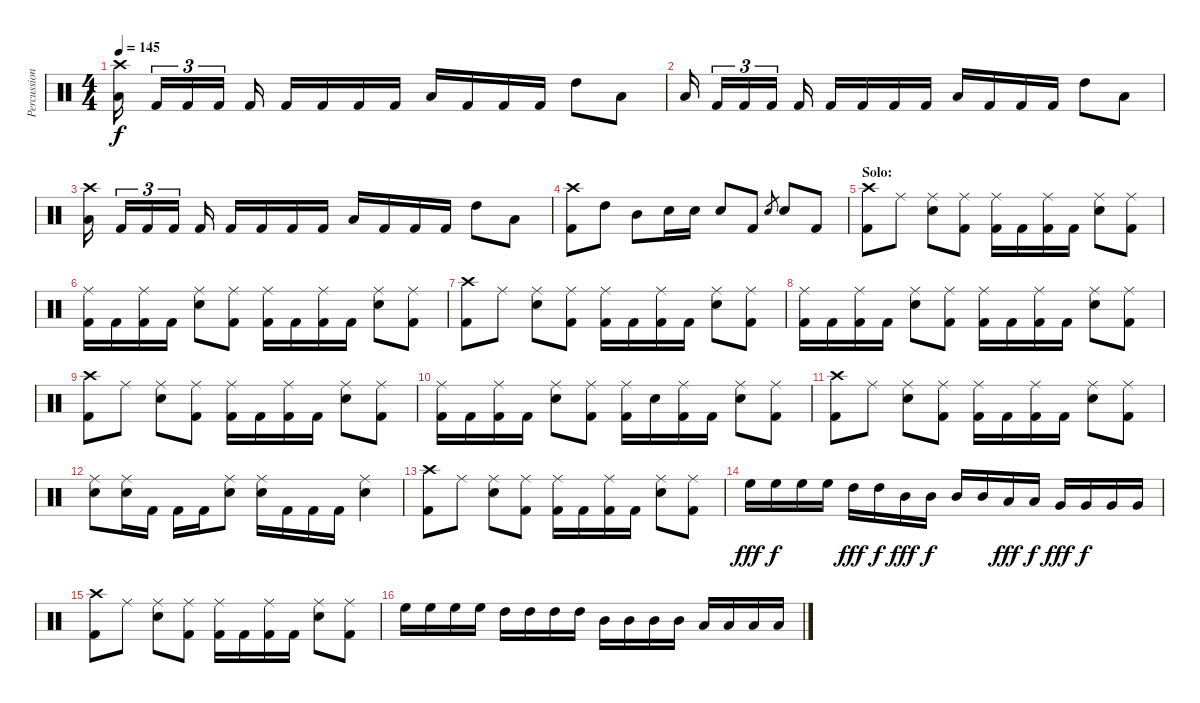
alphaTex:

\track ("Percussion" "Percussion") {instrument percussion}
\staff {score}
\articulation defaults
\ts (4 4)
\tempo 145
\clef neutral
\ks c
("Crash high (hit)" "Low Tom (hit)").16{dy f} "Kick (hit) 2".16{tu (3 2)} "Kick (hit) 2".16{tu (3 2)} "Kick (hit) 2".16{tu (3 2)} "Kick (hit) 2".16 "Kick (hit) 2".16 "Kick (hit) 2".16 "Kick (hit) 2".16 "Kick (hit) 2".16 "Low Tom (hit)".16 "Kick (hit) 2".16 "Kick (hit) 2".16 "Kick (hit) 2".16 "High Tom (hit)".8 "Low Tom (hit)".8 |
"Low Tom (hit)".16 "Kick (hit) 2".16{tu (3 2)} "Kick (hit) 2".16{tu (3 2)} "Kick (hit) 2".16{tu (3 2)} "Kick (hit) 2".16 "Kick (hit) 2".16 "Kick (hit) 2".16 "Kick (hit) 2".16 "Kick (hit) 2".16 "Low Tom (hit)".16 "Kick (hit) 2".16 "Kick (hit) 2".16 "Kick (hit) 2".16 "High Tom (hit)".8 "Low Tom (hit)".8 |
("Crash high (hit)" "Low Tom (hit)").16 "Kick (hit) 2".16{tu (3 2)} "Kick (hit) 2".16{tu (3 2)} "Kick (hit) 2".16{tu (3 2)} "Kick (hit) 2".16 "Kick (hit) 2".16 "Kick (hit) 2".16 "Kick (hit) 2".16 "Kick (hit) 2".16 "Low Tom (hit)".16 "Kick (hit) 2".16 "Kick (hit) 2".16 "Kick (hit) 2".16 "High Tom (hit)".8 "Low Tom (hit)".8 |
("Crash high (hit)" "Kick (hit) 2").8 "High Tom (hit)".8 "Mid Tom (hit)".8 "Electric Snare (hit)".16 "Electric Snare (hit)".16 "Electric Snare (hit)".8 "Kick (hit) 2".8 "Electric Snare (hit)".8{gr} "Electric Snare (hit)".8 "Kick (hit) 2".8 |
\section ("" "Solo:")
("Crash high (hit)" "Kick (hit) 2").8 "Ride (middle)".8 ("Ride (middle)" "Electric Snare (hit)").8 ("Ride (middle)" "Kick (hit) 2").8 ("Ride (middle)" "Kick (hit) 2").16 "Kick (hit) 2".16 ("Ride (middle)" "Kick (hit) 2").16 "Kick (hit) 2".16 ("Ride (middle)" "Electric Snare (hit)").8 ("Ride (middle)" "Kick (hit) 2").8 |
("Ride (middle)" "Kick (hit) 2").16 "Kick (hit) 2".16 ("Ride (middle)" "Kick (hit) 2").16 "Kick (hit) 2".16 ("Ride (middle)" "Electric Snare (hit)").8 ("Ride (middle)" "Kick (hit) 2").8 ("Ride (middle)" "Kick (hit) 2").16 "Kick (hit) 2".16 ("Ride (middle)" "Kick (hit) 2").16 "Kick (hit) 2".16 ("Ride (middle)" "Electric Snare (hit)").8 ("Ride (middle)" "Kick (hit) 2").8 |
("Crash high (hit)" "Kick (hit) 2").8 "Ride (middle)".8 ("Ride (middle)" "Electric Snare (hit)").8 ("Ride (middle)" "Kick (hit) 2").8 ("Ride (middle)" "Kick (hit) 2").16 "Kick (hit) 2".16 ("Ride (middle)" "Kick (hit) 2").16 "Kick (hit) 2".16 ("Ride (middle)" "Electric Snare (hit)").8 ("Ride (middle)" "Kick (hit) 2").8 |
("Ride (middle)" "Kick (hit) 2").16 "Kick (hit) 2".16 ("Ride (middle)" "Kick (hit) 2").16 "Kick (hit) 2".16 ("Ride (middle)" "Electric Snare (hit)").8 ("Ride (middle)" "Kick (hit) 2").8 ("Ride (middle)" "Kick (hit) 2").16 "Kick (hit) 2".16 ("Ride (middle)" "Kick (hit) 2").16 "Kick (hit) 2".16 ("Ride (middle)" "Electric Snare (hit)").8 ("Ride (middle)" "Kick (hit) 2").8 |
("Crash high (hit)" "Kick (hit) 2").8 "Ride (middle)".8 ("Ride (middle)" "Electric Snare (hit)").8 ("Ride (middle)" "Kick (hit) 2").8 ("Ride (middle)" "Kick (hit) 2").16 "Kick (hit) 2".16 ("Ride (middle)" "Kick (hit) 2").16 "Kick (hit) 2".16 ("Ride (middle)" "Electric Snare (hit)").8 ("Ride (middle)" "Kick (hit) 2").8 |
("Ride (middle)" "Kick (hit) 2").16 "Kick (hit) 2".16 ("Ride (middle)" "Kick (hit) 2").16 "Kick (hit) 2".16 ("Ride (middle)" "Electric Snare (hit)").8 ("Ride (middle)" "Kick (hit) 2").8 ("Ride (middle)" "Kick (hit) 2").16 "Electric Snare (hit)".16 ("Ride (middle)" "Kick (hit) 2").16 "Kick (hit) 2".16 ("Ride (middle)" "Electric Snare (hit)").8 ("Ride (middle)" "Kick (hit) 2").8 |
("Crash high (hit)" "Kick (hit) 2").8 "Ride (middle)".8 ("Ride (middle)" "Electric Snare (hit)").8 ("Ride (middle)" "Kick (hit) 2").8 ("Ride (middle)" "Kick (hit) 2").16 "Kick (hit) 2".16 ("Ride (middle)" "Kick (hit) 2").16 "Kick (hit) 2".16 ("Ride (middle)" "Electric Snare (hit)").8 ("Ride (middle)" "Kick (hit) 2").8 |
("Ride (middle)" "Electric Snare (hit)").8 ("Ride (middle)" "Electric Snare (hit)").16 "Kick (hit) 2".16 "Kick (hit) 2".16 "Kick (hit) 2".16 ("Ride (middle)" "Electric Snare (hit)").8 ("Ride (middle)" "Electric Snare (hit)").16 "Kick (hit) 2".16 "Kick (hit) 2".16 "Kick (hit) 2".16 ("Ride (middle)" "Electric Snare (hit)").4 |
("Crash high (hit)" "Kick (hit) 2").8 "Ride (middle)".8 ("Ride (middle)" "Electric Snare (hit)").8 ("Ride (middle)" "Kick (hit) 2").8 ("Ride (middle)" "Kick (hit) 2").16 "Kick (hit) 2".16 ("Ride (middle)" "Kick (hit) 2").16 "Kick (hit) 2".16 ("Ride (middle)" "Electric Snare (hit)").8 ("Ride (middle)" "Kick (hit) 2").8 |
"High Floor Tom (hit)".16{dy fff} "High Floor Tom (hit)".16{dy f} "High Floor Tom (hit)".16 "High Floor Tom (hit)".16 "High Tom (hit)".16{dy fff} "High Tom (hit)".16{dy f} "Mid Tom (hit)".16{dy fff} "Mid Tom (hit)".16{dy f} "Mid Tom (hit)".16 "Mid Tom (hit)".16 "Low Tom (hit)".16{dy fff} "Low Tom (hit)".16{dy f} "Very Low Tom (hit)".16{dy fff} "Very Low Tom (hit)".16{dy f} "Very Low Tom (hit)".16 "Very Low Tom (hit)".16 |
("Crash high (hit)" "Kick (hit) 2").8 "Ride (middle)".8 ("Ride (middle)" "Electric Snare (hit)").8 ("Ride (middle)" "Kick (hit) 2").8 ("Ride (middle)" "Kick (hit) 2").16 "Kick (hit) 2".16 ("Ride (middle)" "Kick (hit) 2").16 "Kick (hit) 2".16 ("Ride (middle)" "Electric Snare (hit)").8 ("Ride (middle)" "Kick (hit) 2").8 |
"High Floor Tom (hit)".16 "High Floor Tom (hit)".16 "High Floor Tom (hit)".16 "High Floor Tom (hit)".16 "High Tom (hit)".16 "High Tom (hit)".16 "High Tom (hit)".16 "High Tom (hit)".16 "Mid Tom (hit)".16 "Mid Tom (hit)".16 "Mid Tom (hit)".16 "Mid Tom (hit)".16 "Low Tom (hit)".16 "Low Tom (hit)".16 "Low Tom (hit)".16 "Low Tom (hit)".16
